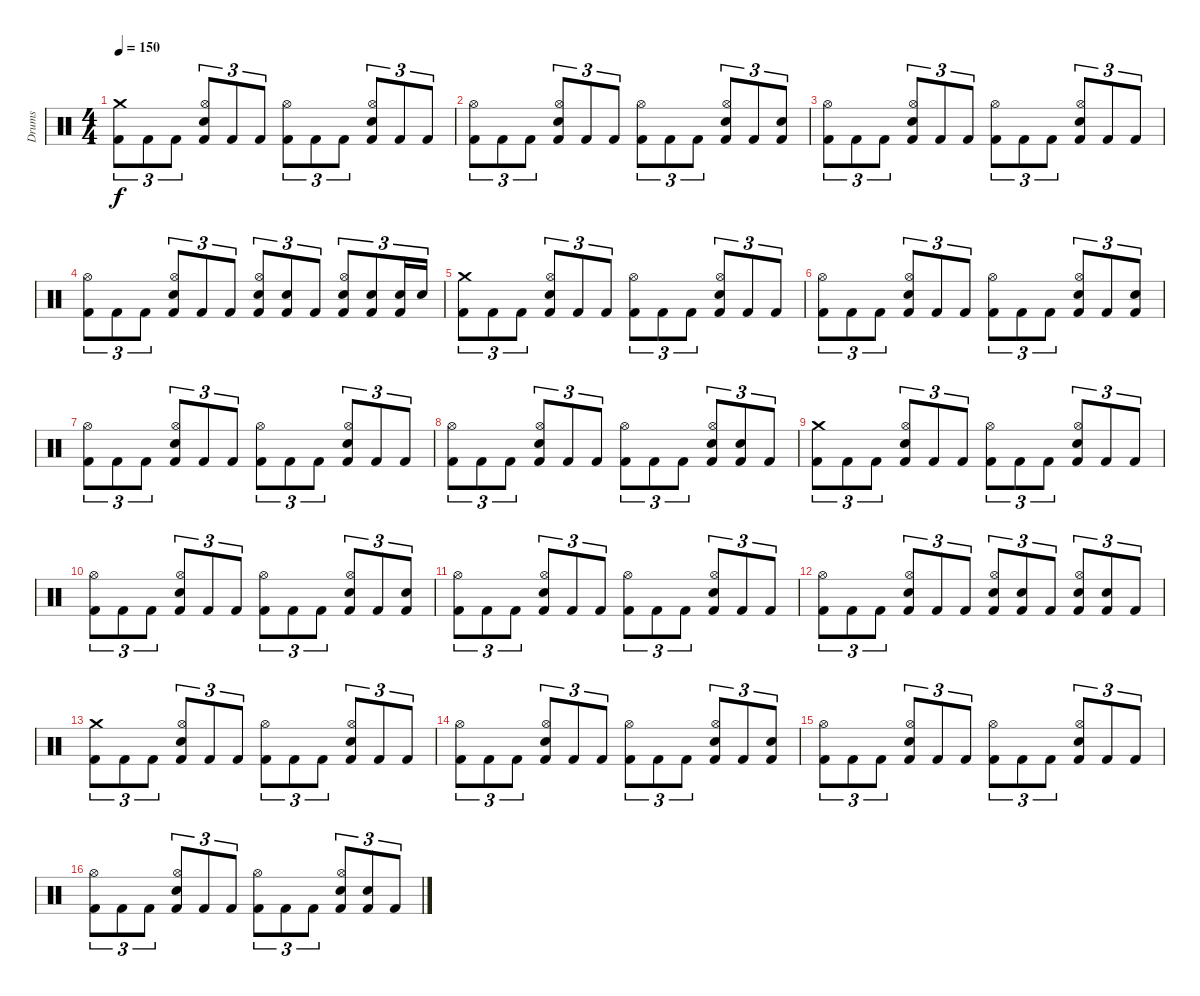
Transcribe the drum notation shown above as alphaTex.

\track ("Drums" "Drums") {instrument percussion}
\staff {score}
\articulation defaults
\ts (4 4)
\tempo 150
\clef neutral
\ks c
("Crash medium (hit)" "Kick (hit) 2").8{tu (3 2) dy f} "Kick (hit) 2".8{tu (3 2)} "Kick (hit) 2".8{tu (3 2)} ("Kick (hit) 2" "Hi-Hat (open)" "Snare (hit) 2").8{tu (3 2)} "Kick (hit) 2".8{tu (3 2)} "Kick (hit) 2".8{tu (3 2)} ("Hi-Hat (open)" "Kick (hit) 2").8{tu (3 2)} "Kick (hit) 2".8{tu (3 2)} "Kick (hit) 2".8{tu (3 2)} ("Kick (hit) 2" "Hi-Hat (open)" "Snare (hit) 2").8{tu (3 2)} "Kick (hit) 2".8{tu (3 2)} "Kick (hit) 2".8{tu (3 2)} |
("Hi-Hat (open)" "Kick (hit) 2").8{tu (3 2)} "Kick (hit) 2".8{tu (3 2)} "Kick (hit) 2".8{tu (3 2)} ("Kick (hit) 2" "Hi-Hat (open)" "Snare (hit) 2").8{tu (3 2)} "Kick (hit) 2".8{tu (3 2)} "Kick (hit) 2".8{tu (3 2)} ("Hi-Hat (open)" "Kick (hit) 2").8{tu (3 2)} "Kick (hit) 2".8{tu (3 2)} "Kick (hit) 2".8{tu (3 2)} ("Kick (hit) 2" "Hi-Hat (open)" "Snare (hit) 2").8{tu (3 2)} "Kick (hit) 2".8{tu (3 2)} ("Kick (hit) 2" "Snare (hit) 2").8{tu (3 2)} |
("Hi-Hat (open)" "Kick (hit) 2").8{tu (3 2)} "Kick (hit) 2".8{tu (3 2)} "Kick (hit) 2".8{tu (3 2)} ("Kick (hit) 2" "Hi-Hat (open)" "Snare (hit) 2").8{tu (3 2)} "Kick (hit) 2".8{tu (3 2)} "Kick (hit) 2".8{tu (3 2)} ("Hi-Hat (open)" "Kick (hit) 2").8{tu (3 2)} "Kick (hit) 2".8{tu (3 2)} "Kick (hit) 2".8{tu (3 2)} ("Kick (hit) 2" "Hi-Hat (open)" "Snare (hit) 2").8{tu (3 2)} "Kick (hit) 2".8{tu (3 2)} "Kick (hit) 2".8{tu (3 2)} |
("Hi-Hat (open)" "Kick (hit) 2").8{tu (3 2)} "Kick (hit) 2".8{tu (3 2)} "Kick (hit) 2".8{tu (3 2)} ("Kick (hit) 2" "Hi-Hat (open)" "Snare (hit) 2").8{tu (3 2)} "Kick (hit) 2".8{tu (3 2)} "Kick (hit) 2".8{tu (3 2)} ("Kick (hit) 2" "Hi-Hat (open)" "Snare (hit) 2").8{tu (3 2)} ("Kick (hit) 2" "Snare (hit) 2").8{tu (3 2)} "Kick (hit) 2".8{tu (3 2)} ("Kick (hit) 2" "Hi-Hat (open)" "Snare (hit) 2").8{tu (3 2)} ("Kick (hit) 2" "Snare (hit) 2").8{tu (3 2)} ("Kick (hit) 2" "Snare (hit) 2").16{tu (3 2)} "Snare (hit) 2".16{tu (3 2)} |
("Crash medium (hit)" "Kick (hit) 2").8{tu (3 2)} "Kick (hit) 2".8{tu (3 2)} "Kick (hit) 2".8{tu (3 2)} ("Kick (hit) 2" "Hi-Hat (open)" "Snare (hit) 2").8{tu (3 2)} "Kick (hit) 2".8{tu (3 2)} "Kick (hit) 2".8{tu (3 2)} ("Hi-Hat (open)" "Kick (hit) 2").8{tu (3 2)} "Kick (hit) 2".8{tu (3 2)} "Kick (hit) 2".8{tu (3 2)} ("Kick (hit) 2" "Hi-Hat (open)" "Snare (hit) 2").8{tu (3 2)} "Kick (hit) 2".8{tu (3 2)} "Kick (hit) 2".8{tu (3 2)} |
("Hi-Hat (open)" "Kick (hit) 2").8{tu (3 2)} "Kick (hit) 2".8{tu (3 2)} "Kick (hit) 2".8{tu (3 2)} ("Kick (hit) 2" "Hi-Hat (open)" "Snare (hit) 2").8{tu (3 2)} "Kick (hit) 2".8{tu (3 2)} "Kick (hit) 2".8{tu (3 2)} ("Hi-Hat (open)" "Kick (hit) 2").8{tu (3 2)} "Kick (hit) 2".8{tu (3 2)} "Kick (hit) 2".8{tu (3 2)} ("Kick (hit) 2" "Hi-Hat (open)" "Snare (hit) 2").8{tu (3 2)} "Kick (hit) 2".8{tu (3 2)} ("Kick (hit) 2" "Snare (hit) 2").8{tu (3 2)} |
("Hi-Hat (open)" "Kick (hit) 2").8{tu (3 2)} "Kick (hit) 2".8{tu (3 2)} "Kick (hit) 2".8{tu (3 2)} ("Kick (hit) 2" "Hi-Hat (open)" "Snare (hit) 2").8{tu (3 2)} "Kick (hit) 2".8{tu (3 2)} "Kick (hit) 2".8{tu (3 2)} ("Hi-Hat (open)" "Kick (hit) 2").8{tu (3 2)} "Kick (hit) 2".8{tu (3 2)} "Kick (hit) 2".8{tu (3 2)} ("Kick (hit) 2" "Hi-Hat (open)" "Snare (hit) 2").8{tu (3 2)} "Kick (hit) 2".8{tu (3 2)} "Kick (hit) 2".8{tu (3 2)} |
("Hi-Hat (open)" "Kick (hit) 2").8{tu (3 2)} "Kick (hit) 2".8{tu (3 2)} "Kick (hit) 2".8{tu (3 2)} ("Kick (hit) 2" "Hi-Hat (open)" "Snare (hit) 2").8{tu (3 2)} "Kick (hit) 2".8{tu (3 2)} "Kick (hit) 2".8{tu (3 2)} ("Hi-Hat (open)" "Kick (hit) 2").8{tu (3 2)} "Kick (hit) 2".8{tu (3 2)} "Kick (hit) 2".8{tu (3 2)} ("Kick (hit) 2" "Hi-Hat (open)" "Snare (hit) 2").8{tu (3 2)} ("Kick (hit) 2" "Snare (hit) 2").8{tu (3 2)} "Kick (hit) 2".8{tu (3 2)} |
("Crash medium (hit)" "Kick (hit) 2").8{tu (3 2)} "Kick (hit) 2".8{tu (3 2)} "Kick (hit) 2".8{tu (3 2)} ("Kick (hit) 2" "Hi-Hat (open)" "Snare (hit) 2").8{tu (3 2)} "Kick (hit) 2".8{tu (3 2)} "Kick (hit) 2".8{tu (3 2)} ("Hi-Hat (open)" "Kick (hit) 2").8{tu (3 2)} "Kick (hit) 2".8{tu (3 2)} "Kick (hit) 2".8{tu (3 2)} ("Kick (hit) 2" "Hi-Hat (open)" "Snare (hit) 2").8{tu (3 2)} "Kick (hit) 2".8{tu (3 2)} "Kick (hit) 2".8{tu (3 2)} |
("Hi-Hat (open)" "Kick (hit) 2").8{tu (3 2)} "Kick (hit) 2".8{tu (3 2)} "Kick (hit) 2".8{tu (3 2)} ("Kick (hit) 2" "Hi-Hat (open)" "Snare (hit) 2").8{tu (3 2)} "Kick (hit) 2".8{tu (3 2)} "Kick (hit) 2".8{tu (3 2)} ("Hi-Hat (open)" "Kick (hit) 2").8{tu (3 2)} "Kick (hit) 2".8{tu (3 2)} "Kick (hit) 2".8{tu (3 2)} ("Kick (hit) 2" "Hi-Hat (open)" "Snare (hit) 2").8{tu (3 2)} "Kick (hit) 2".8{tu (3 2)} ("Kick (hit) 2" "Snare (hit) 2").8{tu (3 2)} |
("Hi-Hat (open)" "Kick (hit) 2").8{tu (3 2)} "Kick (hit) 2".8{tu (3 2)} "Kick (hit) 2".8{tu (3 2)} ("Kick (hit) 2" "Hi-Hat (open)" "Snare (hit) 2").8{tu (3 2)} "Kick (hit) 2".8{tu (3 2)} "Kick (hit) 2".8{tu (3 2)} ("Hi-Hat (open)" "Kick (hit) 2").8{tu (3 2)} "Kick (hit) 2".8{tu (3 2)} "Kick (hit) 2".8{tu (3 2)} ("Kick (hit) 2" "Hi-Hat (open)" "Snare (hit) 2").8{tu (3 2)} "Kick (hit) 2".8{tu (3 2)} "Kick (hit) 2".8{tu (3 2)} |
("Hi-Hat (open)" "Kick (hit) 2").8{tu (3 2)} "Kick (hit) 2".8{tu (3 2)} "Kick (hit) 2".8{tu (3 2)} ("Kick (hit) 2" "Hi-Hat (open)" "Snare (hit) 2").8{tu (3 2)} "Kick (hit) 2".8{tu (3 2)} "Kick (hit) 2".8{tu (3 2)} ("Kick (hit) 2" "Hi-Hat (open)" "Snare (hit) 2").8{tu (3 2)} ("Kick (hit) 2" "Snare (hit) 2").8{tu (3 2)} "Kick (hit) 2".8{tu (3 2)} ("Kick (hit) 2" "Hi-Hat (open)" "Snare (hit) 2").8{tu (3 2)} ("Kick (hit) 2" "Snare (hit) 2").8{tu (3 2)} "Kick (hit) 2".8{tu (3 2)} |
("Crash medium (hit)" "Kick (hit) 2").8{tu (3 2)} "Kick (hit) 2".8{tu (3 2)} "Kick (hit) 2".8{tu (3 2)} ("Kick (hit) 2" "Hi-Hat (open)" "Snare (hit) 2").8{tu (3 2)} "Kick (hit) 2".8{tu (3 2)} "Kick (hit) 2".8{tu (3 2)} ("Hi-Hat (open)" "Kick (hit) 2").8{tu (3 2)} "Kick (hit) 2".8{tu (3 2)} "Kick (hit) 2".8{tu (3 2)} ("Kick (hit) 2" "Hi-Hat (open)" "Snare (hit) 2").8{tu (3 2)} "Kick (hit) 2".8{tu (3 2)} "Kick (hit) 2".8{tu (3 2)} |
("Hi-Hat (open)" "Kick (hit) 2").8{tu (3 2)} "Kick (hit) 2".8{tu (3 2)} "Kick (hit) 2".8{tu (3 2)} ("Kick (hit) 2" "Hi-Hat (open)" "Snare (hit) 2").8{tu (3 2)} "Kick (hit) 2".8{tu (3 2)} "Kick (hit) 2".8{tu (3 2)} ("Hi-Hat (open)" "Kick (hit) 2").8{tu (3 2)} "Kick (hit) 2".8{tu (3 2)} "Kick (hit) 2".8{tu (3 2)} ("Kick (hit) 2" "Hi-Hat (open)" "Snare (hit) 2").8{tu (3 2)} "Kick (hit) 2".8{tu (3 2)} ("Kick (hit) 2" "Snare (hit) 2").8{tu (3 2)} |
("Hi-Hat (open)" "Kick (hit) 2").8{tu (3 2)} "Kick (hit) 2".8{tu (3 2)} "Kick (hit) 2".8{tu (3 2)} ("Kick (hit) 2" "Hi-Hat (open)" "Snare (hit) 2").8{tu (3 2)} "Kick (hit) 2".8{tu (3 2)} "Kick (hit) 2".8{tu (3 2)} ("Hi-Hat (open)" "Kick (hit) 2").8{tu (3 2)} "Kick (hit) 2".8{tu (3 2)} "Kick (hit) 2".8{tu (3 2)} ("Kick (hit) 2" "Hi-Hat (open)" "Snare (hit) 2").8{tu (3 2)} "Kick (hit) 2".8{tu (3 2)} "Kick (hit) 2".8{tu (3 2)} |
("Hi-Hat (open)" "Kick (hit) 2").8{tu (3 2)} "Kick (hit) 2".8{tu (3 2)} "Kick (hit) 2".8{tu (3 2)} ("Kick (hit) 2" "Hi-Hat (open)" "Snare (hit) 2").8{tu (3 2)} "Kick (hit) 2".8{tu (3 2)} "Kick (hit) 2".8{tu (3 2)} ("Hi-Hat (open)" "Kick (hit) 2").8{tu (3 2)} "Kick (hit) 2".8{tu (3 2)} "Kick (hit) 2".8{tu (3 2)} ("Kick (hit) 2" "Hi-Hat (open)" "Snare (hit) 2").8{tu (3 2)} ("Kick (hit) 2" "Snare (hit) 2").8{tu (3 2)} "Kick (hit) 2".8{tu (3 2)}
